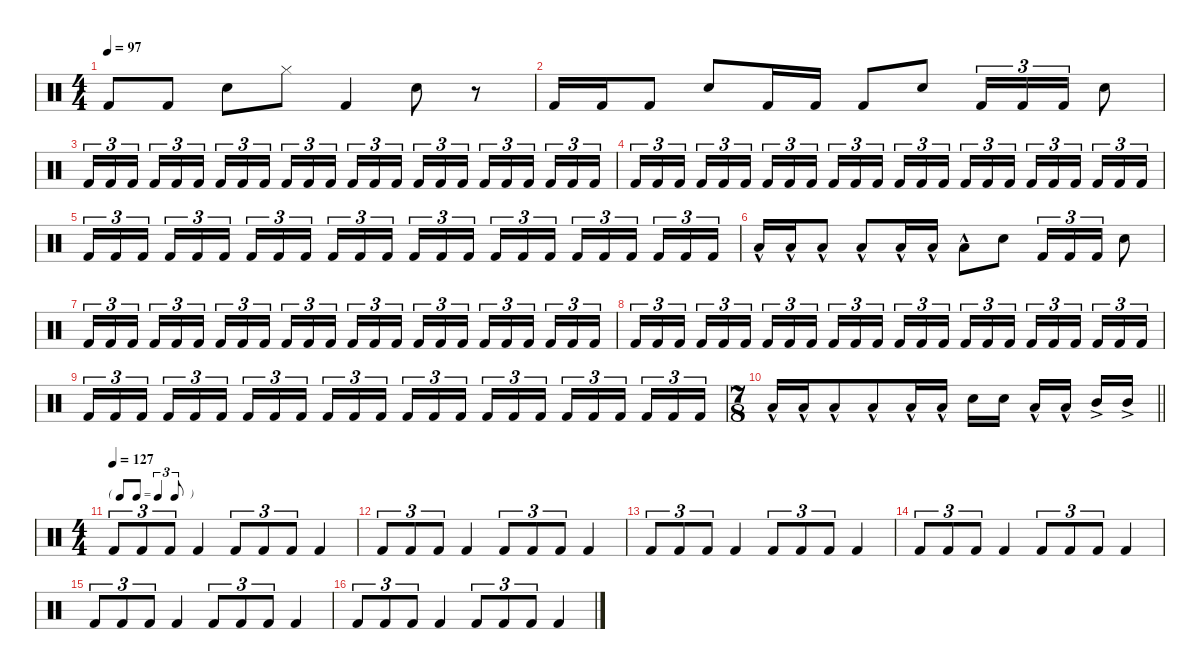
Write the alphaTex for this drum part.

\defaultSystemsLayout 4
\hideDynamics
\bracketExtendMode nobrackets
\singleTrackTrackNamePolicy hidden
\multiTrackTrackNamePolicy hidden
\firstSystemTrackNameMode fullname
\firstSystemTrackNameOrientation horizontal
\otherSystemsTrackNameOrientation horizontal
\track ("Drums [Martin Lopez]" "drm.") {defaultSystemsLayout 4 instrument percussion}
\staff {score}
\articulation defaults
\ts (4 4)
\tempo 97
\clef neutral
\ks c "Kick (hit) 2".8{dy f beam Up} "Kick (hit) 2".8{beam Up} "Snare (hit) 2".8{beam Down} "Hi-Hat (closed)".8{beam Down} "Kick (hit) 2".4{beam Up} "Snare (hit) 2".8{beam Down}
r.8{beam Down} |
"Kick (hit) 2".16{beam Up} "Kick (hit) 2".16{beam Up} "Kick (hit) 2".8{beam Up} "Snare (hit) 2".8{beam Up} "Kick (hit) 2".16{beam Up} "Kick (hit) 2".16{beam Up} "Kick (hit) 2".8{beam Up} "Snare (hit) 2".8{beam Up} "Kick (hit) 2".16{tu (3 2) beam Up} "Kick (hit) 2".16{tu (3 2) beam Up} "Kick (hit) 2".16{tu (3 2) beam Up} "Snare (hit) 2".8{beam Down} |
"Kick (hit) 2".16{tu (3 2) beam Up} "Kick (hit) 2".16{tu (3 2) beam Up} "Kick (hit) 2".16{tu (3 2) beam Up} "Kick (hit) 2".16{tu (3 2) beam Up} "Kick (hit) 2".16{tu (3 2) beam Up} "Kick (hit) 2".16{tu (3 2) beam Up} "Kick (hit) 2".16{tu (3 2) beam Up} "Kick (hit) 2".16{tu (3 2) beam Up} "Kick (hit) 2".16{tu (3 2) beam Up} "Kick (hit) 2".16{tu (3 2) beam Up} "Kick (hit) 2".16{tu (3 2) beam Up} "Kick (hit) 2".16{tu (3 2) beam Up} "Kick (hit) 2".16{tu (3 2) beam Up} "Kick (hit) 2".16{tu (3 2) beam Up} "Kick (hit) 2".16{tu (3 2) beam Up} "Kick (hit) 2".16{tu (3 2) beam Up} "Kick (hit) 2".16{tu (3 2) beam Up} "Kick (hit) 2".16{tu (3 2) beam Up} "Kick (hit) 2".16{tu (3 2) beam Up} "Kick (hit) 2".16{tu (3 2) beam Up} "Kick (hit) 2".16{tu (3 2) beam Up} "Kick (hit) 2".16{tu (3 2) beam Up} "Kick (hit) 2".16{tu (3 2) beam Up} "Kick (hit) 2".16{tu (3 2) beam Up} |
"Kick (hit) 2".16{tu (3 2) beam Up} "Kick (hit) 2".16{tu (3 2) beam Up} "Kick (hit) 2".16{tu (3 2) beam Up} "Kick (hit) 2".16{tu (3 2) beam Up} "Kick (hit) 2".16{tu (3 2) beam Up} "Kick (hit) 2".16{tu (3 2) beam Up} "Kick (hit) 2".16{tu (3 2) beam Up} "Kick (hit) 2".16{tu (3 2) beam Up} "Kick (hit) 2".16{tu (3 2) beam Up} "Kick (hit) 2".16{tu (3 2) beam Up} "Kick (hit) 2".16{tu (3 2) beam Up} "Kick (hit) 2".16{tu (3 2) beam Up} "Kick (hit) 2".16{tu (3 2) beam Up} "Kick (hit) 2".16{tu (3 2) beam Up} "Kick (hit) 2".16{tu (3 2) beam Up} "Kick (hit) 2".16{tu (3 2) beam Up} "Kick (hit) 2".16{tu (3 2) beam Up} "Kick (hit) 2".16{tu (3 2) beam Up} "Kick (hit) 2".16{tu (3 2) beam Up} "Kick (hit) 2".16{tu (3 2) beam Up} "Kick (hit) 2".16{tu (3 2) beam Up} "Kick (hit) 2".16{tu (3 2) beam Up} "Kick (hit) 2".16{tu (3 2) beam Up} "Kick (hit) 2".16{tu (3 2) beam Up} |
"Kick (hit) 2".16{tu (3 2) beam Up} "Kick (hit) 2".16{tu (3 2) beam Up} "Kick (hit) 2".16{tu (3 2) beam Up} "Kick (hit) 2".16{tu (3 2) beam Up} "Kick (hit) 2".16{tu (3 2) beam Up} "Kick (hit) 2".16{tu (3 2) beam Up} "Kick (hit) 2".16{tu (3 2) beam Up} "Kick (hit) 2".16{tu (3 2) beam Up} "Kick (hit) 2".16{tu (3 2) beam Up} "Kick (hit) 2".16{tu (3 2) beam Up} "Kick (hit) 2".16{tu (3 2) beam Up} "Kick (hit) 2".16{tu (3 2) beam Up} "Kick (hit) 2".16{tu (3 2) beam Up} "Kick (hit) 2".16{tu (3 2) beam Up} "Kick (hit) 2".16{tu (3 2) beam Up} "Kick (hit) 2".16{tu (3 2) beam Up} "Kick (hit) 2".16{tu (3 2) beam Up} "Kick (hit) 2".16{tu (3 2) beam Up} "Kick (hit) 2".16{tu (3 2) beam Up} "Kick (hit) 2".16{tu (3 2) beam Up} "Kick (hit) 2".16{tu (3 2) beam Up} "Kick (hit) 2".16{tu (3 2) beam Up} "Kick (hit) 2".16{tu (3 2) beam Up} "Kick (hit) 2".16{tu (3 2) beam Up} |
"Low Floor Tom (hit)"{hac}.16{dy mp beam Up} "Low Floor Tom (hit)"{hac}.16{beam Up} "Low Floor Tom (hit)"{hac}.8{beam Up} "Low Floor Tom (hit)"{hac}.8{beam Up} "Low Floor Tom (hit)"{hac}.16{beam Up} "Low Floor Tom (hit)"{hac}.16{beam Up} "Low Floor Tom (hit)"{hac}.8{beam Down} "Snare (hit) 2".8{dy f beam Down} "Kick (hit) 2".16{tu (3 2) beam Up} "Kick (hit) 2".16{tu (3 2) beam Up} "Kick (hit) 2".16{tu (3 2) beam Up} "Snare (hit) 2".8{beam Down} |
"Kick (hit) 2".16{tu (3 2) beam Up} "Kick (hit) 2".16{tu (3 2) beam Up} "Kick (hit) 2".16{tu (3 2) beam Up} "Kick (hit) 2".16{tu (3 2) beam Up} "Kick (hit) 2".16{tu (3 2) beam Up} "Kick (hit) 2".16{tu (3 2) beam Up} "Kick (hit) 2".16{tu (3 2) beam Up} "Kick (hit) 2".16{tu (3 2) beam Up} "Kick (hit) 2".16{tu (3 2) beam Up} "Kick (hit) 2".16{tu (3 2) beam Up} "Kick (hit) 2".16{tu (3 2) beam Up} "Kick (hit) 2".16{tu (3 2) beam Up} "Kick (hit) 2".16{tu (3 2) beam Up} "Kick (hit) 2".16{tu (3 2) beam Up} "Kick (hit) 2".16{tu (3 2) beam Up} "Kick (hit) 2".16{tu (3 2) beam Up} "Kick (hit) 2".16{tu (3 2) beam Up} "Kick (hit) 2".16{tu (3 2) beam Up} "Kick (hit) 2".16{tu (3 2) beam Up} "Kick (hit) 2".16{tu (3 2) beam Up} "Kick (hit) 2".16{tu (3 2) beam Up} "Kick (hit) 2".16{tu (3 2) beam Up} "Kick (hit) 2".16{tu (3 2) beam Up} "Kick (hit) 2".16{tu (3 2) beam Up} |
"Kick (hit) 2".16{tu (3 2) beam Up} "Kick (hit) 2".16{tu (3 2) beam Up} "Kick (hit) 2".16{tu (3 2) beam Up} "Kick (hit) 2".16{tu (3 2) beam Up} "Kick (hit) 2".16{tu (3 2) beam Up} "Kick (hit) 2".16{tu (3 2) beam Up} "Kick (hit) 2".16{tu (3 2) beam Up} "Kick (hit) 2".16{tu (3 2) beam Up} "Kick (hit) 2".16{tu (3 2) beam Up} "Kick (hit) 2".16{tu (3 2) beam Up} "Kick (hit) 2".16{tu (3 2) beam Up} "Kick (hit) 2".16{tu (3 2) beam Up} "Kick (hit) 2".16{tu (3 2) beam Up} "Kick (hit) 2".16{tu (3 2) beam Up} "Kick (hit) 2".16{tu (3 2) beam Up} "Kick (hit) 2".16{tu (3 2) beam Up} "Kick (hit) 2".16{tu (3 2) beam Up} "Kick (hit) 2".16{tu (3 2) beam Up} "Kick (hit) 2".16{tu (3 2) beam Up} "Kick (hit) 2".16{tu (3 2) beam Up} "Kick (hit) 2".16{tu (3 2) beam Up} "Kick (hit) 2".16{tu (3 2) beam Up} "Kick (hit) 2".16{tu (3 2) beam Up} "Kick (hit) 2".16{tu (3 2) beam Up} |
"Kick (hit) 2".16{tu (3 2) beam Up} "Kick (hit) 2".16{tu (3 2) beam Up} "Kick (hit) 2".16{tu (3 2) beam Up} "Kick (hit) 2".16{tu (3 2) beam Up} "Kick (hit) 2".16{tu (3 2) beam Up} "Kick (hit) 2".16{tu (3 2) beam Up} "Kick (hit) 2".16{tu (3 2) beam Up} "Kick (hit) 2".16{tu (3 2) beam Up} "Kick (hit) 2".16{tu (3 2) beam Up} "Kick (hit) 2".16{tu (3 2) beam Up} "Kick (hit) 2".16{tu (3 2) beam Up} "Kick (hit) 2".16{tu (3 2) beam Up} "Kick (hit) 2".16{tu (3 2) beam Up} "Kick (hit) 2".16{tu (3 2) beam Up} "Kick (hit) 2".16{tu (3 2) beam Up} "Kick (hit) 2".16{tu (3 2) beam Up} "Kick (hit) 2".16{tu (3 2) beam Up} "Kick (hit) 2".16{tu (3 2) beam Up} "Kick (hit) 2".16{tu (3 2) beam Up} "Kick (hit) 2".16{tu (3 2) beam Up} "Kick (hit) 2".16{tu (3 2) beam Up} "Kick (hit) 2".16{tu (3 2) beam Up} "Kick (hit) 2".16{tu (3 2) beam Up} "Kick (hit) 2".16{tu (3 2) beam Up} |
\ts (7 8)
\beaming (8 4 1 1 1)
\barLineRight lightlight "Low Floor Tom (hit)"{hac}.16{dy mp beam Up} "Low Floor Tom (hit)"{hac}.16{beam Up} "Low Floor Tom (hit)"{hac}.8{beam Up} "Low Floor Tom (hit)"{hac}.8{beam Up} "Low Floor Tom (hit)"{hac}.16{beam Up} "Low Floor Tom (hit)"{hac}.16{beam Up} "Snare (hit) 2".16{dy f beam Down} "Snare (hit) 2".16{beam Down} "Low Tom (hit)"{hac}.16{dy mp beam Up} "Low Tom (hit)"{hac}.16{beam Up} "Mid Tom (hit)"{ac}.16{dy mf beam Up} "Mid Tom (hit)"{ac}.16{beam Up}
|
\ts (4 4)
\beaming (8 2 2 2 2)
\tf triplet8th
\tempo (127)
"Kick (hit) 2".8{tu (3 2) dy f beam Up} "Kick (hit) 2".8{tu (3 2) beam Up} "Kick (hit) 2".8{tu (3 2) beam Up} "Kick (hit) 2".4{beam Up} "Kick (hit) 2".8{tu (3 2) beam Up} "Kick (hit) 2".8{tu (3 2) beam Up} "Kick (hit) 2".8{tu (3 2) beam Up} "Kick (hit) 2".4{beam Up} |
"Kick (hit) 2".8{tu (3 2) beam Up} "Kick (hit) 2".8{tu (3 2) beam Up} "Kick (hit) 2".8{tu (3 2) beam Up} "Kick (hit) 2".4{beam Up} "Kick (hit) 2".8{tu (3 2) beam Up} "Kick (hit) 2".8{tu (3 2) beam Up} "Kick (hit) 2".8{tu (3 2) beam Up} "Kick (hit) 2".4{beam Up} |
"Kick (hit) 2".8{tu (3 2) beam Up} "Kick (hit) 2".8{tu (3 2) beam Up} "Kick (hit) 2".8{tu (3 2) beam Up} "Kick (hit) 2".4{beam Up} "Kick (hit) 2".8{tu (3 2) beam Up} "Kick (hit) 2".8{tu (3 2) beam Up} "Kick (hit) 2".8{tu (3 2) beam Up} "Kick (hit) 2".4{beam Up} |
"Kick (hit) 2".8{tu (3 2) beam Up} "Kick (hit) 2".8{tu (3 2) beam Up} "Kick (hit) 2".8{tu (3 2) beam Up} "Kick (hit) 2".4{beam Up} "Kick (hit) 2".8{tu (3 2) beam Up} "Kick (hit) 2".8{tu (3 2) beam Up} "Kick (hit) 2".8{tu (3 2) beam Up} "Kick (hit) 2".4{beam Up} |
"Kick (hit) 2".8{tu (3 2) beam Up} "Kick (hit) 2".8{tu (3 2) beam Up} "Kick (hit) 2".8{tu (3 2) beam Up} "Kick (hit) 2".4{beam Up} "Kick (hit) 2".8{tu (3 2) beam Up} "Kick (hit) 2".8{tu (3 2) beam Up} "Kick (hit) 2".8{tu (3 2) beam Up} "Kick (hit) 2".4{beam Up} |
"Kick (hit) 2".8{tu (3 2) beam Up} "Kick (hit) 2".8{tu (3 2) beam Up} "Kick (hit) 2".8{tu (3 2) beam Up} "Kick (hit) 2".4{beam Up} "Kick (hit) 2".8{tu (3 2) beam Up} "Kick (hit) 2".8{tu (3 2) beam Up} "Kick (hit) 2".8{tu (3 2) beam Up} "Kick (hit) 2".4{beam Up}
